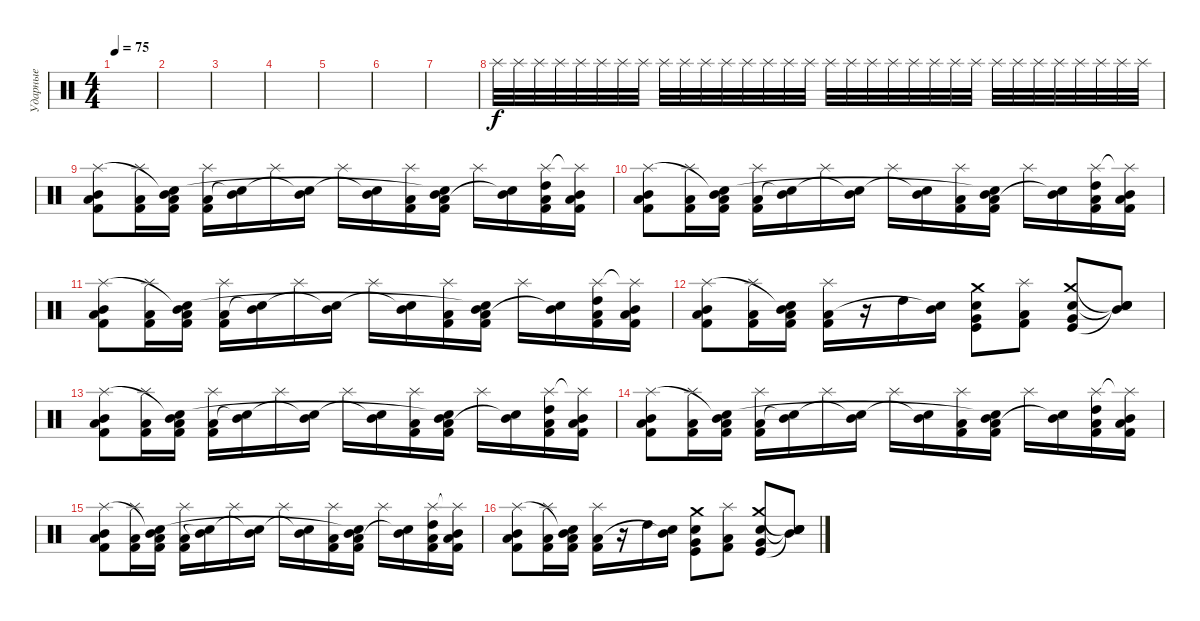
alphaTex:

\track ("Ударные" "Ударные") {instrument percussion}
\staff {score}
\articulation defaults
\ts (4 4)
\tempo 75
\clef neutral
\ks c
|
|
|
|
|
|
|
"Splash (hit)".32{volume 13} "Splash (hit)".32 "Splash (hit)".32 "Splash (hit)".32 "Splash (hit)".32 "Splash (hit)".32 "Splash (hit)".32 "Splash (hit)".32 "Splash (hit)".32 "Splash (hit)".32 "Splash (hit)".32 "Splash (hit)".32 "Splash (hit)".32 "Splash (hit)".32 "Splash (hit)".32 "Splash (hit)".32 "Splash (hit)".32 "Splash (hit)".32 "Splash (hit)".32 "Splash (hit)".32 "Splash (hit)".32 "Splash (hit)".32 "Splash (hit)".32 "Splash (hit)".32 "Splash (hit)".32 "Splash (hit)".32 "Splash (hit)".32 "Splash (hit)".32 "Splash (hit)".32 "Splash (hit)".32 "Splash (hit)".32 "Splash (hit)".32 |
("Kick (hit) 2" "Low Tom (hit)" "Mid Tom (hit)" "Splash (hit)").8 ("Kick (hit) 2" "Low Tom (hit)" "Splash (hit)").16 ("Kick (hit) 2" "Low Tom (hit)" "Mid Tom (hit)" "Snare (hit)"{t}).16 ("Kick (hit) 2" "Low Tom (hit)" "Splash (hit)").16 ("Mid Tom (hit)" "Snare (hit)"{t}).16 "Splash (hit)".16 ("Mid Tom (hit)" "Snare (hit)"{t}).16 "Splash (hit)".16 ("Mid Tom (hit)" "Snare (hit)"{t}).16 ("Kick (hit) 2" "Low Tom (hit)" "Splash (hit)").16 ("Kick (hit) 2" "Low Tom (hit)" "Mid Tom (hit)" "Snare (hit)"{t}).16 "Splash (hit)".16 ("Mid Tom (hit)" "Snare (hit)"{t}).16 ("Kick (hit) 2" "Low Tom (hit)" "High Tom (hit)" "Splash (hit)").16 ("Kick (hit) 2" "Low Tom (hit)" "Mid Tom (hit)" "Splash (hit)"{t}).16 |
("Kick (hit) 2" "Low Tom (hit)" "Mid Tom (hit)" "Splash (hit)").8 ("Kick (hit) 2" "Low Tom (hit)" "Splash (hit)").16 ("Kick (hit) 2" "Low Tom (hit)" "Mid Tom (hit)" "Snare (hit)"{t}).16 ("Kick (hit) 2" "Low Tom (hit)" "Splash (hit)").16 ("Mid Tom (hit)" "Snare (hit)"{t}).16 "Splash (hit)".16 ("Mid Tom (hit)" "Snare (hit)"{t}).16 "Splash (hit)".16 ("Mid Tom (hit)" "Snare (hit)"{t}).16 ("Kick (hit) 2" "Low Tom (hit)" "Splash (hit)").16 ("Kick (hit) 2" "Low Tom (hit)" "Mid Tom (hit)" "Snare (hit)"{t}).16 "Splash (hit)".16 ("Mid Tom (hit)" "Snare (hit)"{t}).16 ("Kick (hit) 2" "Low Tom (hit)" "High Tom (hit)" "Splash (hit)").16 ("Kick (hit) 2" "Low Tom (hit)" "Mid Tom (hit)" "Splash (hit)"{t}).16 |
("Kick (hit) 2" "Low Tom (hit)" "Mid Tom (hit)" "Splash (hit)").8 ("Kick (hit) 2" "Low Tom (hit)" "Splash (hit)").16 ("Kick (hit) 2" "Low Tom (hit)" "Mid Tom (hit)" "Snare (hit)"{t}).16 ("Kick (hit) 2" "Low Tom (hit)" "Splash (hit)").16 ("Mid Tom (hit)" "Snare (hit)"{t}).16 "Splash (hit)".16 ("Mid Tom (hit)" "Snare (hit)"{t}).16 "Splash (hit)".16 ("Mid Tom (hit)" "Snare (hit)"{t}).16 ("Kick (hit) 2" "Low Tom (hit)" "Splash (hit)").16 ("Kick (hit) 2" "Low Tom (hit)" "Mid Tom (hit)" "Snare (hit)"{t}).16 "Splash (hit)".16 ("Mid Tom (hit)" "Snare (hit)"{t}).16 ("Kick (hit) 2" "Low Tom (hit)" "High Tom (hit)" "Splash (hit)").16 ("Kick (hit) 2" "Low Tom (hit)" "Mid Tom (hit)" "Splash (hit)"{t}).16 |
("Kick (hit) 2" "Low Tom (hit)" "Mid Tom (hit)" "Splash (hit)").8 ("Kick (hit) 2" "Low Tom (hit)" "Splash (hit)").16 ("Kick (hit) 2" "Low Tom (hit)" "Mid Tom (hit)" "Snare (hit)"{t}).16 ("Kick (hit) 2" "Low Tom (hit)" "Splash (hit)").16 r.16 "High Tom (hit)".16 ("Mid Tom (hit)" "Snare (hit)"{t}).16 ("Kick (hit)" "Very Low Tom (hit)" "Crash medium (hit)" "Electric Snare (hit)").8 ("Kick (hit) 2" "Low Floor Tom (hit)" "Splash (hit)").8 ("Kick (hit)" "Very Low Tom (hit)" "Crash medium (hit)" "Electric Snare (hit)").8 ("Snare (hit)"{t} "Mid Tom (hit)" "Snare (hit)"{t} "Snare (hit)"{t}).8 |
("Kick (hit) 2" "Low Tom (hit)" "Mid Tom (hit)" "Splash (hit)").8 ("Kick (hit) 2" "Low Tom (hit)" "Splash (hit)").16 ("Kick (hit) 2" "Low Tom (hit)" "Mid Tom (hit)" "Snare (hit)"{t}).16 ("Kick (hit) 2" "Low Tom (hit)" "Splash (hit)").16 ("Mid Tom (hit)" "Snare (hit)"{t}).16 "Splash (hit)".16 ("Mid Tom (hit)" "Snare (hit)"{t}).16 "Splash (hit)".16 ("Mid Tom (hit)" "Snare (hit)"{t}).16 ("Kick (hit) 2" "Low Tom (hit)" "Splash (hit)").16 ("Kick (hit) 2" "Low Tom (hit)" "Mid Tom (hit)" "Snare (hit)"{t}).16 "Splash (hit)".16 ("Mid Tom (hit)" "Snare (hit)"{t}).16 ("Kick (hit) 2" "Low Tom (hit)" "High Tom (hit)" "Splash (hit)").16 ("Kick (hit) 2" "Low Tom (hit)" "Mid Tom (hit)" "Splash (hit)"{t}).16 |
("Kick (hit) 2" "Low Tom (hit)" "Mid Tom (hit)" "Splash (hit)").8 ("Kick (hit) 2" "Low Tom (hit)" "Splash (hit)").16 ("Kick (hit) 2" "Low Tom (hit)" "Mid Tom (hit)" "Snare (hit)"{t}).16 ("Kick (hit) 2" "Low Tom (hit)" "Splash (hit)").16 ("Mid Tom (hit)" "Snare (hit)"{t}).16 "Splash (hit)".16 ("Mid Tom (hit)" "Snare (hit)"{t}).16 "Splash (hit)".16 ("Mid Tom (hit)" "Snare (hit)"{t}).16 ("Kick (hit) 2" "Low Tom (hit)" "Splash (hit)").16 ("Kick (hit) 2" "Low Tom (hit)" "Mid Tom (hit)" "Snare (hit)"{t}).16 "Splash (hit)".16 ("Mid Tom (hit)" "Snare (hit)"{t}).16 ("Kick (hit) 2" "Low Tom (hit)" "High Tom (hit)" "Splash (hit)").16 ("Kick (hit) 2" "Low Tom (hit)" "Mid Tom (hit)" "Splash (hit)"{t}).16 |
("Kick (hit) 2" "Low Tom (hit)" "Mid Tom (hit)" "Splash (hit)").8 ("Kick (hit) 2" "Low Tom (hit)" "Splash (hit)").16 ("Kick (hit) 2" "Low Tom (hit)" "Mid Tom (hit)" "Snare (hit)"{t}).16 ("Kick (hit) 2" "Low Tom (hit)" "Splash (hit)").16 ("Mid Tom (hit)" "Snare (hit)"{t}).16 "Splash (hit)".16 ("Mid Tom (hit)" "Snare (hit)"{t}).16 "Splash (hit)".16 ("Mid Tom (hit)" "Snare (hit)"{t}).16 ("Kick (hit) 2" "Low Tom (hit)" "Splash (hit)").16 ("Kick (hit) 2" "Low Tom (hit)" "Mid Tom (hit)" "Snare (hit)"{t}).16 "Splash (hit)".16 ("Mid Tom (hit)" "Snare (hit)"{t}).16 ("Kick (hit) 2" "Low Tom (hit)" "High Tom (hit)" "Splash (hit)").16 ("Kick (hit) 2" "Low Tom (hit)" "Mid Tom (hit)" "Splash (hit)"{t}).16 |
("Kick (hit) 2" "Low Tom (hit)" "Mid Tom (hit)" "Splash (hit)").8 ("Kick (hit) 2" "Low Tom (hit)" "Splash (hit)").16 ("Kick (hit) 2" "Low Tom (hit)" "Mid Tom (hit)" "Snare (hit)"{t}).16 ("Kick (hit) 2" "Low Tom (hit)" "Splash (hit)").16 r.16 "High Tom (hit)".16 ("Mid Tom (hit)" "Snare (hit)"{t}).16 ("Kick (hit)" "Very Low Tom (hit)" "Crash medium (hit)" "Electric Snare (hit)").8 ("Kick (hit) 2" "Low Floor Tom (hit)" "Splash (hit)").8 ("Kick (hit)" "Very Low Tom (hit)" "Crash medium (hit)" "Electric Snare (hit)").8 ("Snare (hit)"{t} "Mid Tom (hit)" "Snare (hit)"{t} "Snare (hit)"{t}).8
